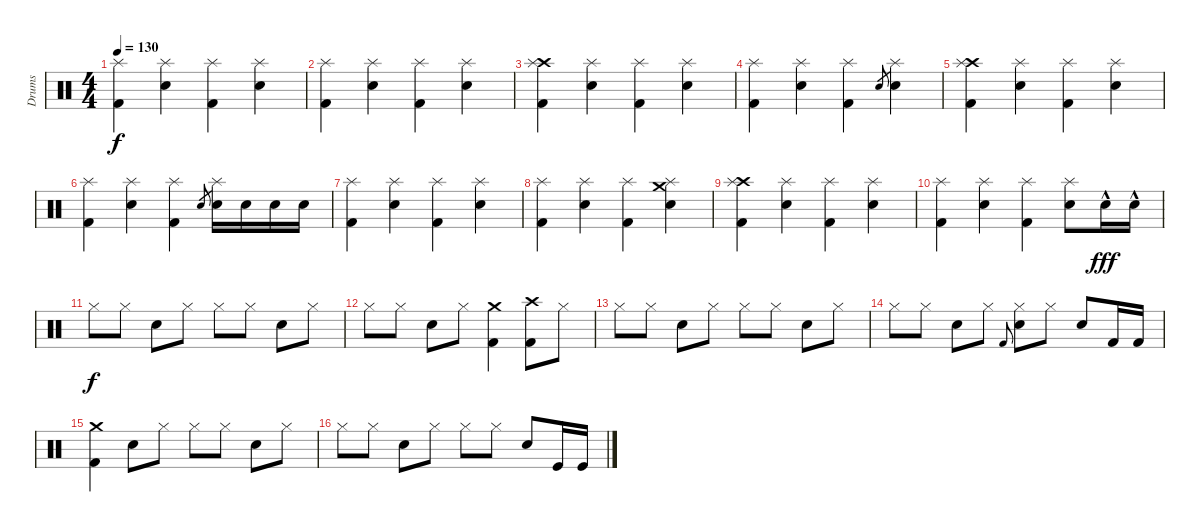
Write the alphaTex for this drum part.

\track ("Drums" "Drums") {instrument percussion}
\staff {score}
\articulation defaults
\ts (4 4)
\tempo 130
\clef neutral
\ks c
("Splash (hit)" "Kick (hit) 2").4{dy f} ("Splash (hit)" "Snare (hit) 2").4 ("Splash (hit)" "Kick (hit) 2").4 ("Splash (hit)" "Snare (hit) 2").4 |
("Splash (hit)" "Kick (hit) 2").4 ("Splash (hit)" "Snare (hit) 2").4 ("Splash (hit)" "Kick (hit) 2").4 ("Splash (hit)" "Snare (hit) 2").4 |
("Crash high (hit)" "Splash (hit)" "Kick (hit) 2").4 ("Splash (hit)" "Snare (hit) 2").4 ("Splash (hit)" "Kick (hit) 2").4 ("Splash (hit)" "Snare (hit) 2").4 |
("Splash (hit)" "Kick (hit) 2").4 ("Splash (hit)" "Snare (hit) 2").4 ("Splash (hit)" "Kick (hit) 2").4 "Snare (hit) 2"{x}.8{gr} ("Splash (hit)" "Snare (hit) 2").4 |
("Crash high (hit)" "Splash (hit)" "Kick (hit) 2").4 ("Splash (hit)" "Snare (hit) 2").4 ("Splash (hit)" "Kick (hit) 2").4 ("Splash (hit)" "Snare (hit) 2").4 |
("Splash (hit)" "Kick (hit) 2").4 ("Splash (hit)" "Snare (hit) 2").4 ("Splash (hit)" "Kick (hit) 2").4 "Snare (hit) 2"{x}.8{gr} ("Splash (hit)" "Snare (hit) 2").16 "Snare (hit) 2".16 "Snare (hit) 2".16 "Snare (hit) 2".16 |
("Splash (hit)" "Kick (hit) 2").4 ("Splash (hit)" "Snare (hit) 2").4 ("Splash (hit)" "Kick (hit) 2").4 ("Splash (hit)" "Snare (hit) 2").4 |
("Splash (hit)" "Kick (hit) 2").4 ("Splash (hit)" "Snare (hit) 2").4 ("Splash (hit)" "Kick (hit) 2").4 ("Crash medium (hit)" "Splash (hit)" "Snare (hit) 2").4 |
("Crash high (hit)" "Splash (hit)" "Kick (hit) 2").4 ("Splash (hit)" "Snare (hit) 2").4 ("Splash (hit)" "Kick (hit) 2").4 ("Splash (hit)" "Snare (hit) 2").4 |
("Splash (hit)" "Kick (hit) 2").4 ("Splash (hit)" "Snare (hit) 2").4 ("Splash (hit)" "Kick (hit) 2").4 ("Splash (hit)" "Snare (hit) 2").8 "Snare (hit) 2"{hac}.16{dy fff} "Snare (hit) 2"{hac}.16 |
"Hi-Hat (closed)".8{dy f} "Hi-Hat (closed)".8 "Snare (hit) 2".8 "Hi-Hat (closed)".8 "Hi-Hat (closed)".8 "Hi-Hat (closed)".8 "Snare (hit) 2".8 "Hi-Hat (closed)".8 |
"Hi-Hat (closed)".8 "Hi-Hat (closed)".8 "Snare (hit) 2".8 "Hi-Hat (closed)".8 ("Crash medium (hit)" "Kick (hit) 2").4 ("Crash high (hit)" "Kick (hit) 2").8 "Hi-Hat (closed)".8 |
"Hi-Hat (closed)".8 "Hi-Hat (closed)".8 "Snare (hit) 2".8 "Hi-Hat (closed)".8 "Hi-Hat (closed)".8 "Hi-Hat (closed)".8 "Snare (hit) 2".8 "Hi-Hat (closed)".8 |
"Hi-Hat (closed)".8 "Hi-Hat (closed)".8 "Snare (hit) 2".8 "Hi-Hat (closed)".8 "Kick (hit) 2".8{gr onbeat} ("Snare (hit) 2" "Hi-Hat (closed)").8 "Hi-Hat (closed)".8 "Snare (hit) 2".8 "Kick (hit) 2".16 "Kick (hit) 2".16 |
("Crash medium (hit)" "Kick (hit) 2").4 "Snare (hit) 2".8 "Hi-Hat (closed)".8 "Hi-Hat (closed)".8 "Hi-Hat (closed)".8 "Snare (hit) 2".8 "Hi-Hat (closed)".8 |
"Hi-Hat (closed)".8 "Hi-Hat (closed)".8 "Snare (hit) 2".8 "Hi-Hat (closed)".8 "Hi-Hat (closed)".8 "Hi-Hat (closed)".8 "Snare (hit) 2".8 "Kick (hit)".16 "Kick (hit)".16
